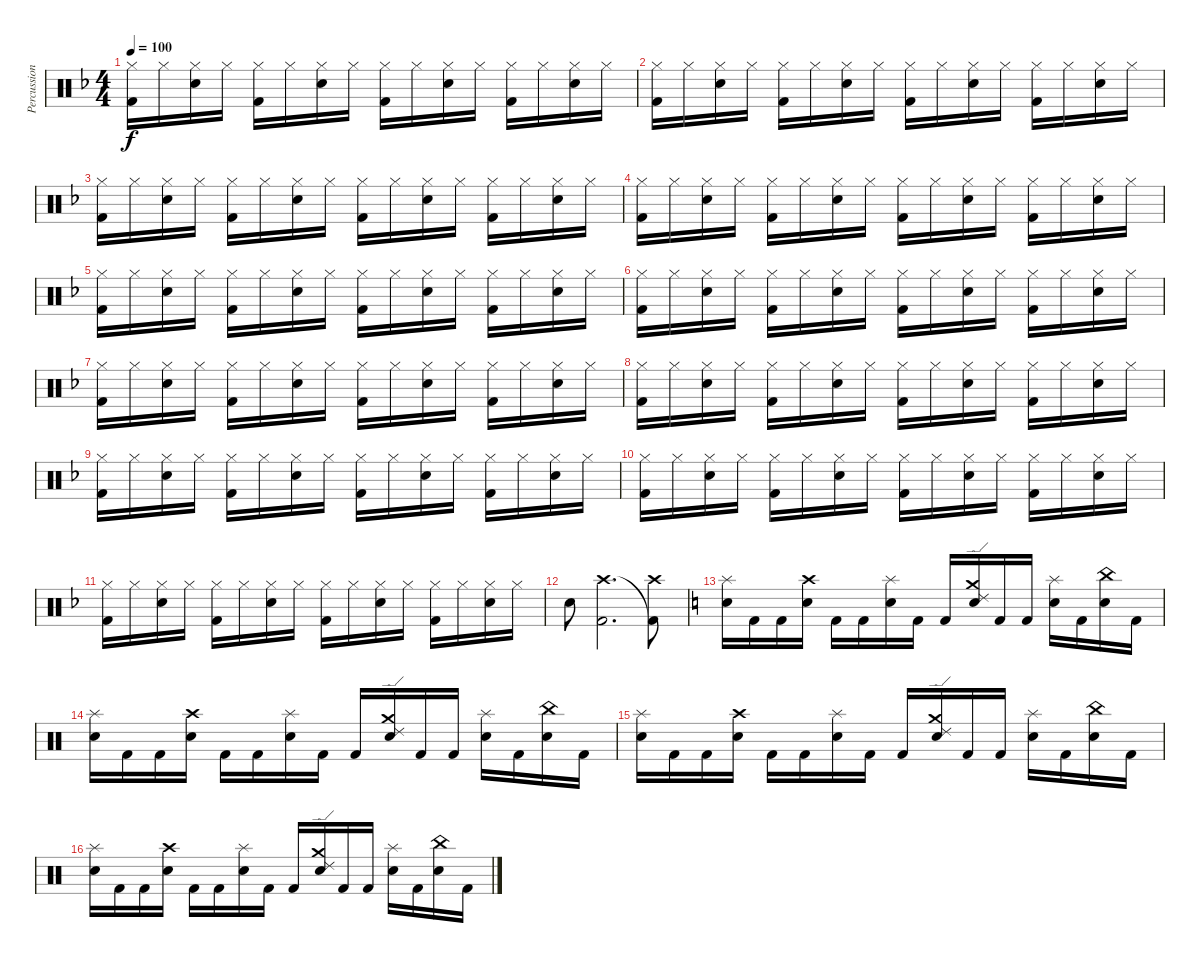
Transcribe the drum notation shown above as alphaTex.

\track ("Percussion" "Percussion") {instrument percussion}
\staff {score}
\articulation defaults
\ts (4 4)
\tempo 100
\clef neutral
\ks f
("Hi-Hat (closed)" "Kick (hit) 2").16{dy f} "Hi-Hat (closed)".16 ("Hi-Hat (closed)" "Snare (hit) 2").16 "Hi-Hat (closed)".16 ("Hi-Hat (closed)" "Kick (hit) 2").16 "Hi-Hat (closed)".16 ("Hi-Hat (closed)" "Snare (hit) 2").16 "Hi-Hat (closed)".16 ("Hi-Hat (closed)" "Kick (hit) 2").16 "Hi-Hat (closed)".16 ("Hi-Hat (closed)" "Snare (hit) 2").16 "Hi-Hat (closed)".16 ("Hi-Hat (closed)" "Kick (hit) 2").16 "Hi-Hat (closed)".16 ("Hi-Hat (closed)" "Snare (hit) 2").16 "Hi-Hat (closed)".16 |
("Hi-Hat (closed)" "Kick (hit) 2").16 "Hi-Hat (closed)".16 ("Hi-Hat (closed)" "Snare (hit) 2").16 "Hi-Hat (closed)".16 ("Hi-Hat (closed)" "Kick (hit) 2").16 "Hi-Hat (closed)".16 ("Hi-Hat (closed)" "Snare (hit) 2").16 "Hi-Hat (closed)".16 ("Hi-Hat (closed)" "Kick (hit) 2").16 "Hi-Hat (closed)".16 ("Hi-Hat (closed)" "Snare (hit) 2").16 "Hi-Hat (closed)".16 ("Hi-Hat (closed)" "Kick (hit) 2").16 "Hi-Hat (closed)".16 ("Hi-Hat (closed)" "Snare (hit) 2").16 "Hi-Hat (closed)".16 |
("Hi-Hat (closed)" "Kick (hit) 2").16 "Hi-Hat (closed)".16 ("Hi-Hat (closed)" "Snare (hit) 2").16 "Hi-Hat (closed)".16 ("Hi-Hat (closed)" "Kick (hit) 2").16 "Hi-Hat (closed)".16 ("Hi-Hat (closed)" "Snare (hit) 2").16 "Hi-Hat (closed)".16 ("Hi-Hat (closed)" "Kick (hit) 2").16 "Hi-Hat (closed)".16 ("Hi-Hat (closed)" "Snare (hit) 2").16 "Hi-Hat (closed)".16 ("Hi-Hat (closed)" "Kick (hit) 2").16 "Hi-Hat (closed)".16 ("Hi-Hat (closed)" "Snare (hit) 2").16 "Hi-Hat (closed)".16 |
("Hi-Hat (closed)" "Kick (hit) 2").16 "Hi-Hat (closed)".16 ("Hi-Hat (closed)" "Snare (hit) 2").16 "Hi-Hat (closed)".16 ("Hi-Hat (closed)" "Kick (hit) 2").16 "Hi-Hat (closed)".16 ("Hi-Hat (closed)" "Snare (hit) 2").16 "Hi-Hat (closed)".16 ("Hi-Hat (closed)" "Kick (hit) 2").16 "Hi-Hat (closed)".16 ("Hi-Hat (closed)" "Snare (hit) 2").16 "Hi-Hat (closed)".16 ("Hi-Hat (closed)" "Kick (hit) 2").16 "Hi-Hat (closed)".16 ("Hi-Hat (closed)" "Snare (hit) 2").16 "Hi-Hat (closed)".16 |
("Hi-Hat (closed)" "Kick (hit) 2").16 "Hi-Hat (closed)".16 ("Hi-Hat (closed)" "Snare (hit) 2").16 "Hi-Hat (closed)".16 ("Hi-Hat (closed)" "Kick (hit) 2").16 "Hi-Hat (closed)".16 ("Hi-Hat (closed)" "Snare (hit) 2").16 "Hi-Hat (closed)".16 ("Hi-Hat (closed)" "Kick (hit) 2").16 "Hi-Hat (closed)".16 ("Hi-Hat (closed)" "Snare (hit) 2").16 "Hi-Hat (closed)".16 ("Hi-Hat (closed)" "Kick (hit) 2").16 "Hi-Hat (closed)".16 ("Hi-Hat (closed)" "Snare (hit) 2").16 "Hi-Hat (closed)".16 |
("Hi-Hat (closed)" "Kick (hit) 2").16 "Hi-Hat (closed)".16 ("Hi-Hat (closed)" "Snare (hit) 2").16 "Hi-Hat (closed)".16 ("Hi-Hat (closed)" "Kick (hit) 2").16 "Hi-Hat (closed)".16 ("Hi-Hat (closed)" "Snare (hit) 2").16 "Hi-Hat (closed)".16 ("Hi-Hat (closed)" "Kick (hit) 2").16 "Hi-Hat (closed)".16 ("Hi-Hat (closed)" "Snare (hit) 2").16 "Hi-Hat (closed)".16 ("Hi-Hat (closed)" "Kick (hit) 2").16 "Hi-Hat (closed)".16 ("Hi-Hat (closed)" "Snare (hit) 2").16 "Hi-Hat (closed)".16 |
("Hi-Hat (closed)" "Kick (hit) 2").16 "Hi-Hat (closed)".16 ("Hi-Hat (closed)" "Snare (hit) 2").16 "Hi-Hat (closed)".16 ("Hi-Hat (closed)" "Kick (hit) 2").16 "Hi-Hat (closed)".16 ("Hi-Hat (closed)" "Snare (hit) 2").16 "Hi-Hat (closed)".16 ("Hi-Hat (closed)" "Kick (hit) 2").16 "Hi-Hat (closed)".16 ("Hi-Hat (closed)" "Snare (hit) 2").16 "Hi-Hat (closed)".16 ("Hi-Hat (closed)" "Kick (hit) 2").16 "Hi-Hat (closed)".16 ("Hi-Hat (closed)" "Snare (hit) 2").16 "Hi-Hat (closed)".16 |
("Hi-Hat (closed)" "Kick (hit) 2").16 "Hi-Hat (closed)".16 ("Hi-Hat (closed)" "Snare (hit) 2").16 "Hi-Hat (closed)".16 ("Hi-Hat (closed)" "Kick (hit) 2").16 "Hi-Hat (closed)".16 ("Hi-Hat (closed)" "Snare (hit) 2").16 "Hi-Hat (closed)".16 ("Hi-Hat (closed)" "Kick (hit) 2").16 "Hi-Hat (closed)".16 ("Hi-Hat (closed)" "Snare (hit) 2").16 "Hi-Hat (closed)".16 ("Hi-Hat (closed)" "Kick (hit) 2").16 "Hi-Hat (closed)".16 ("Hi-Hat (closed)" "Snare (hit) 2").16 "Hi-Hat (closed)".16 |
("Hi-Hat (closed)" "Kick (hit) 2").16 "Hi-Hat (closed)".16 ("Hi-Hat (closed)" "Snare (hit) 2").16 "Hi-Hat (closed)".16 ("Hi-Hat (closed)" "Kick (hit) 2").16 "Hi-Hat (closed)".16 ("Hi-Hat (closed)" "Snare (hit) 2").16 "Hi-Hat (closed)".16 ("Hi-Hat (closed)" "Kick (hit) 2").16 "Hi-Hat (closed)".16 ("Hi-Hat (closed)" "Snare (hit) 2").16 "Hi-Hat (closed)".16 ("Hi-Hat (closed)" "Kick (hit) 2").16 "Hi-Hat (closed)".16 ("Hi-Hat (closed)" "Snare (hit) 2").16 "Hi-Hat (closed)".16 |
("Hi-Hat (closed)" "Kick (hit) 2").16 "Hi-Hat (closed)".16 ("Hi-Hat (closed)" "Snare (hit) 2").16 "Hi-Hat (closed)".16 ("Hi-Hat (closed)" "Kick (hit) 2").16 "Hi-Hat (closed)".16 ("Hi-Hat (closed)" "Snare (hit) 2").16 "Hi-Hat (closed)".16 ("Hi-Hat (closed)" "Kick (hit) 2").16 "Hi-Hat (closed)".16 ("Hi-Hat (closed)" "Snare (hit) 2").16 "Hi-Hat (closed)".16 ("Hi-Hat (closed)" "Kick (hit) 2").16 "Hi-Hat (closed)".16 ("Hi-Hat (closed)" "Snare (hit) 2").16 "Hi-Hat (closed)".16 |
("Hi-Hat (closed)" "Kick (hit) 2").16 "Hi-Hat (closed)".16 ("Hi-Hat (closed)" "Snare (hit) 2").16 "Hi-Hat (closed)".16 ("Hi-Hat (closed)" "Kick (hit) 2").16 "Hi-Hat (closed)".16 ("Hi-Hat (closed)" "Snare (hit) 2").16 "Hi-Hat (closed)".16 ("Hi-Hat (closed)" "Kick (hit) 2").16 "Hi-Hat (closed)".16 ("Hi-Hat (closed)" "Snare (hit) 2").16 "Hi-Hat (closed)".16 ("Hi-Hat (closed)" "Kick (hit) 2").16 "Hi-Hat (closed)".16 ("Hi-Hat (closed)" "Snare (hit) 2").16 "Hi-Hat (closed)".16 |
"Snare (hit) 2".8 ("Kick (hit) 2" "Crash high (hit)").2{d} ("Crash high (hit)" "Kick (hit) 2"{t}).8 |
\ks c
("Snare (hit) 2" "Splash (hit)").16 "Kick (hit) 2".16 "Kick (hit) 2".16 ("Crash high (hit)" "Snare (hit) 2").16 "Kick (hit) 2".16 "Kick (hit) 2".16 ("Splash (hit)" "Snare (hit) 2").16 "Kick (hit) 2".16 "Kick (hit) 2".16 ("Snare (hit) 2" "Crash medium (hit)" "Ride (edge) 2").16 "Kick (hit) 2".16 "Kick (hit) 2".16 ("Splash (hit)" "Snare (hit) 2").16 "Kick (hit) 2".16 ("China (hit)" "Snare (hit) 2").16 "Kick (hit) 2".16 |
("Snare (hit) 2" "Splash (hit)").16 "Kick (hit) 2".16 "Kick (hit) 2".16 ("Crash high (hit)" "Snare (hit) 2").16 "Kick (hit) 2".16 "Kick (hit) 2".16 ("Splash (hit)" "Snare (hit) 2").16 "Kick (hit) 2".16 "Kick (hit) 2".16 ("Snare (hit) 2" "Crash medium (hit)" "Ride (edge) 2").16 "Kick (hit) 2".16 "Kick (hit) 2".16 ("Splash (hit)" "Snare (hit) 2").16 "Kick (hit) 2".16 ("China (hit)" "Snare (hit) 2").16 "Kick (hit) 2".16 |
("Snare (hit) 2" "Splash (hit)").16 "Kick (hit) 2".16 "Kick (hit) 2".16 ("Crash high (hit)" "Snare (hit) 2").16 "Kick (hit) 2".16 "Kick (hit) 2".16 ("Splash (hit)" "Snare (hit) 2").16 "Kick (hit) 2".16 "Kick (hit) 2".16 ("Snare (hit) 2" "Crash medium (hit)" "Ride (edge) 2").16 "Kick (hit) 2".16 "Kick (hit) 2".16 ("Splash (hit)" "Snare (hit) 2").16 "Kick (hit) 2".16 ("China (hit)" "Snare (hit) 2").16 "Kick (hit) 2".16 |
("Snare (hit) 2" "Splash (hit)").16 "Kick (hit) 2".16 "Kick (hit) 2".16 ("Crash high (hit)" "Snare (hit) 2").16 "Kick (hit) 2".16 "Kick (hit) 2".16 ("Splash (hit)" "Snare (hit) 2").16 "Kick (hit) 2".16 "Kick (hit) 2".16 ("Snare (hit) 2" "Crash medium (hit)" "Ride (edge) 2").16 "Kick (hit) 2".16 "Kick (hit) 2".16 ("Splash (hit)" "Snare (hit) 2").16 "Kick (hit) 2".16 ("China (hit)" "Snare (hit) 2").16 "Kick (hit) 2".16
